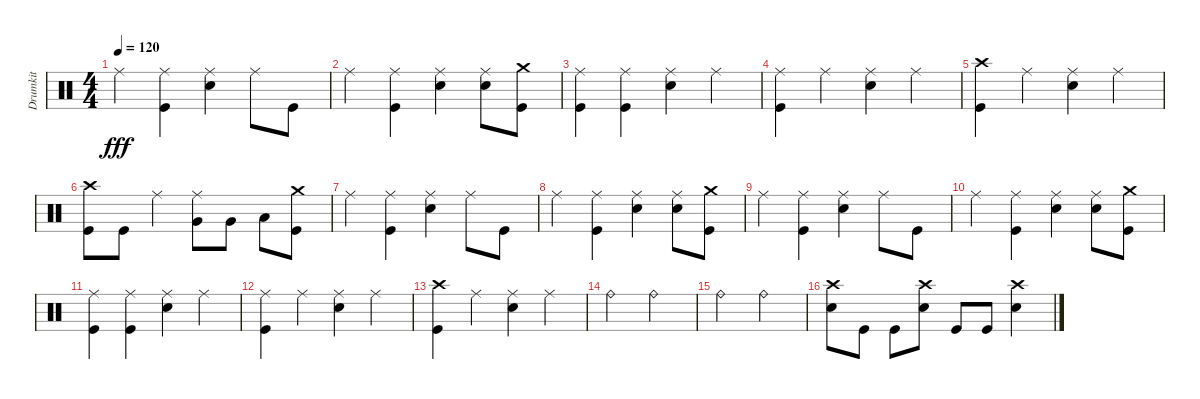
\track ("Drumkit" "Drumkit") {instrument percussion}
\staff {score}
\articulation defaults
\ts (4 4)
\tempo 120
\clef neutral
\ks c "Ride (middle)".4{dy fff}
("Ride (middle)" "Kick (hit)").4 ("Ride (middle)" "Snare (hit) 2").4 "Ride (middle)".8 "Kick (hit)".8 |
"Ride (middle)".4 ("Ride (middle)" "Kick (hit)").4 ("Ride (middle)" "Snare (hit) 2").4 ("Ride (middle)" "Snare (hit) 2").8 ("Kick (hit)" "Crash medium (hit)").8 |
("Ride (middle)" "Kick (hit)").4 ("Ride (middle)" "Kick (hit)").4 ("Ride (middle)" "Snare (hit) 2").4 "Ride (middle)".4 |
("Ride (middle)" "Kick (hit)").4 "Ride (middle)".4 ("Ride (middle)" "Snare (hit) 2").4 "Ride (middle)".4 |
("Kick (hit)" "Crash high (hit)").4 "Ride (middle)".4 ("Ride (middle)" "Snare (hit) 2").4 "Ride (middle)".4 |
("Kick (hit)" "Crash high (hit)").8 "Kick (hit)".8 "Ride (middle)".4 ("Ride (middle)" "Very Low Tom (hit)").8 "Very Low Tom (hit)".8 "Low Tom (hit)".8 ("Crash medium (hit)" "Kick (hit)").8 |
"Ride (middle)".4 ("Ride (middle)" "Kick (hit)").4 ("Ride (middle)" "Snare (hit) 2").4 "Ride (middle)".8 "Kick (hit)".8 |
"Ride (middle)".4 ("Ride (middle)" "Kick (hit)").4 ("Ride (middle)" "Snare (hit) 2").4 ("Ride (middle)" "Snare (hit) 2").8 ("Kick (hit)" "Crash medium (hit)").8 |
"Ride (middle)".4 ("Ride (middle)" "Kick (hit)").4 ("Ride (middle)" "Snare (hit) 2").4 "Ride (middle)".8 "Kick (hit)".8 |
"Ride (middle)".4 ("Ride (middle)" "Kick (hit)").4 ("Ride (middle)" "Snare (hit) 2").4 ("Ride (middle)" "Snare (hit) 2").8 ("Kick (hit)" "Crash medium (hit)").8 |
("Ride (middle)" "Kick (hit)").4 ("Ride (middle)" "Kick (hit)").4 ("Ride (middle)" "Snare (hit) 2").4 "Ride (middle)".4 |
("Ride (middle)" "Kick (hit)").4 "Ride (middle)".4 ("Ride (middle)" "Snare (hit) 2").4 "Ride (middle)".4 |
("Kick (hit)" "Crash high (hit)").4 "Ride (middle)".4 ("Ride (middle)" "Snare (hit) 2").4 "Ride (middle)".4 |
"Ride (bell)".2 "Ride (bell)".2 |
"Ride (bell)".2 "Ride (bell)".2 |
("Snare (hit) 2" "Crash high (hit)").8 "Kick (hit)".8 "Kick (hit)".8 ("Snare (hit) 2" "Crash high (hit)").8 "Kick (hit)".8 "Kick (hit)".8 ("Snare (hit) 2" "Crash high (hit)").4
